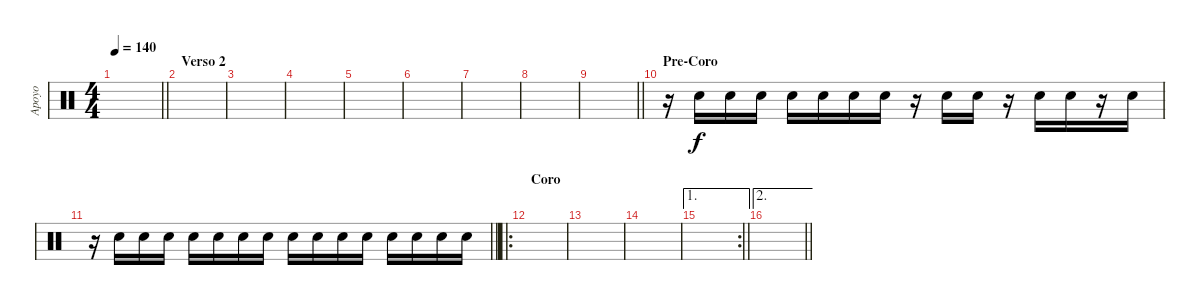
\track ("Apoyo" "Apoyo") {instrument percussion}
\staff {score}
\articulation defaults
\ts (4 4)
\tempo 140
\clef neutral
\barLineRight lightlight
\ks c
|
\section ("" "Verso 2")
|
|
|
|
|
|
|
\barLineRight lightlight
|
\section ("" "Pre-Coro")
r.16 "Electric Snare (hit)".16 "Electric Snare (hit)".16 "Electric Snare (hit)".16 "Electric Snare (hit)".16 "Electric Snare (hit)".16 "Electric Snare (hit)".16 "Electric Snare (hit)".16 r.16 "Electric Snare (hit)".16 "Electric Snare (hit)".16 r.16 "Electric Snare (hit)".16 "Electric Snare (hit)".16 r.16 "Electric Snare (hit)".16 |
\barLineRight lightlight
r.16 "Electric Snare (hit)".16 "Electric Snare (hit)".16 "Electric Snare (hit)".16 "Electric Snare (hit)".16 "Electric Snare (hit)".16 "Electric Snare (hit)".16 "Electric Snare (hit)".16 "Electric Snare (hit)".16 "Electric Snare (hit)".16 "Electric Snare (hit)".16 "Electric Snare (hit)".16 "Electric Snare (hit)".16 "Electric Snare (hit)".16 "Electric Snare (hit)".16 "Electric Snare (hit)".16 |
\ro
\section ("" "Coro")
|
|
|
\ae 1
\rc 2
\barLineRight lightlight
|
\ae 2
\barLineRight lightlight
